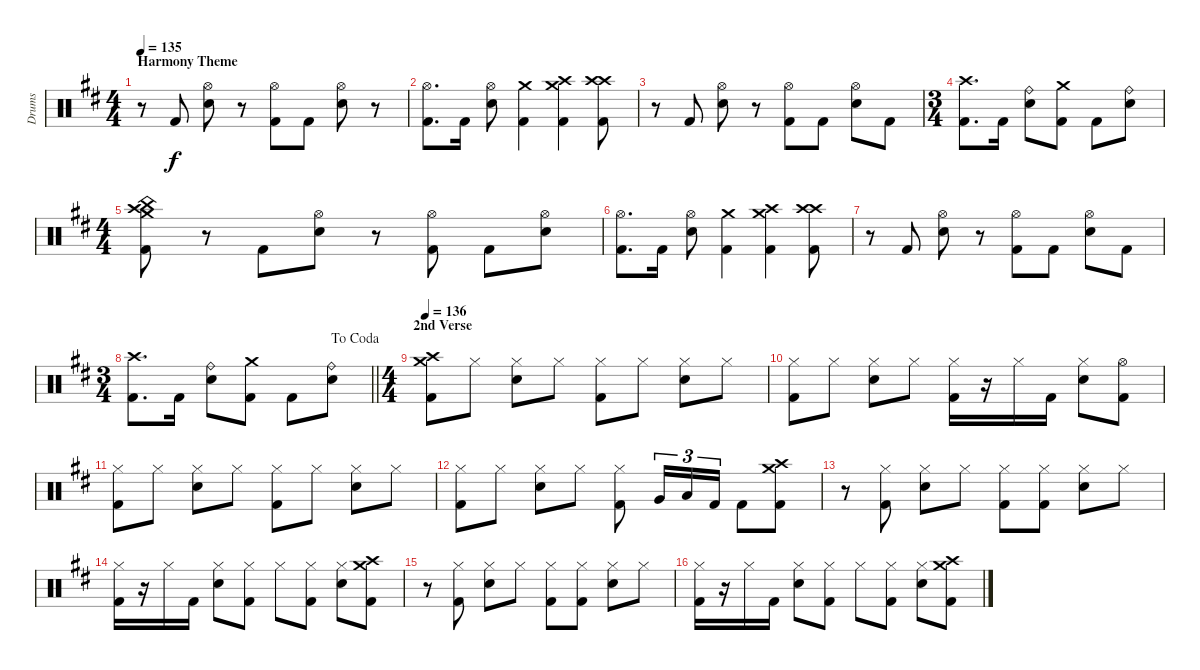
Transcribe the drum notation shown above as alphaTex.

\track ("Drums" "Drums") {instrument percussion}
\staff {score}
\articulation defaults
\ts (4 4)
\section ("" "Harmony Theme")
\tempo 135
\clef neutral
\ks d
r.8{dy f} "Kick (hit) 2".8 ("Hi-Hat (open)" "Electric Snare (hit)").8 r.8 ("Hi-Hat (open)" "Kick (hit) 2").8 "Kick (hit) 2".8 ("Hi-Hat (open)" "Electric Snare (hit)").8 r.8 |
("Hi-Hat (open)" "Kick (hit) 2").8{d} "Kick (hit) 2".16 ("Hi-Hat (open)" "Electric Snare (hit)").8 ("Crash medium (hit)" "Kick (hit) 2").4 ("Crash medium (hit)" "Crash high (hit)" "Kick (hit) 2").4 ("Crash high (hit)" "Crash high (hit)" "Kick (hit) 2").8 |
r.8 "Kick (hit) 2".8 ("Hi-Hat (open)" "Electric Snare (hit)").8 r.8 ("Hi-Hat (open)" "Kick (hit) 2").8 "Kick (hit) 2".8 ("Hi-Hat (open)" "Electric Snare (hit)").8 "Kick (hit) 2".8 |
\ts (3 4)
("Crash high (hit)" "Kick (hit) 2").8{d} "Kick (hit) 2".16 ("Ride (bell)" "Electric Snare (hit)").8 ("Crash medium (hit)" "Kick (hit) 2").8 "Kick (hit) 2".8 ("Ride (bell)" "Electric Snare (hit)").8 |
\ts (4 4)
("Crash high (hit)" "China (hit)" "Crash medium (hit)" "Kick (hit) 2").8 r.8 "Kick (hit) 2".8 ("Hi-Hat (open)" "Electric Snare (hit)").8 r.8 ("Hi-Hat (open)" "Kick (hit) 2").8 "Kick (hit) 2".8 ("Hi-Hat (open)" "Electric Snare (hit)").8 |
("Hi-Hat (open)" "Kick (hit) 2").8{d} "Kick (hit) 2".16 ("Hi-Hat (open)" "Electric Snare (hit)").8 ("Crash medium (hit)" "Kick (hit) 2").4 ("Crash medium (hit)" "Crash high (hit)" "Kick (hit) 2").4 ("Crash high (hit)" "Crash high (hit)" "Kick (hit) 2").8 |
r.8 "Kick (hit) 2".8 ("Hi-Hat (open)" "Electric Snare (hit)").8 r.8 ("Hi-Hat (open)" "Kick (hit) 2").8 "Kick (hit) 2".8 ("Hi-Hat (open)" "Electric Snare (hit)").8 "Kick (hit) 2".8 |
\ts (3 4)
\jump dacoda
\barLineRight lightlight
("Crash high (hit)" "Kick (hit) 2").8{d} "Kick (hit) 2".16 ("Ride (bell)" "Electric Snare (hit)").8 ("Crash medium (hit)" "Kick (hit) 2").8 "Kick (hit) 2".8 ("Ride (bell)" "Electric Snare (hit)").8 |
\ts (4 4)
\section ("" "2nd Verse")
\tempo 136
("Crash medium (hit)" "Crash high (hit)" "Kick (hit) 2").8 "Hi-Hat (closed)".8 ("Hi-Hat (closed)" "Electric Snare (hit)").8 "Hi-Hat (closed)".8 ("Hi-Hat (closed)" "Kick (hit) 2").8 "Hi-Hat (closed)".8 ("Hi-Hat (closed)" "Electric Snare (hit)").8 "Hi-Hat (closed)".8 |
("Hi-Hat (closed)" "Kick (hit) 2").8 "Hi-Hat (closed)".8 ("Hi-Hat (closed)" "Electric Snare (hit)").8 "Hi-Hat (closed)".8 ("Hi-Hat (closed)" "Kick (hit) 2").16 r.16 "Hi-Hat (closed)".16 "Kick (hit) 2".16 ("Hi-Hat (closed)" "Electric Snare (hit)").8 ("Hi-Hat (open)" "Kick (hit) 2").8 |
("Hi-Hat (closed)" "Kick (hit) 2").8 "Hi-Hat (closed)".8 ("Hi-Hat (closed)" "Electric Snare (hit)").8 "Hi-Hat (closed)".8 ("Hi-Hat (closed)" "Kick (hit) 2").8 "Hi-Hat (closed)".8 ("Hi-Hat (closed)" "Electric Snare (hit)").8 "Hi-Hat (closed)".8 |
("Hi-Hat (closed)" "Kick (hit) 2").8 "Hi-Hat (closed)".8 ("Hi-Hat (closed)" "Electric Snare (hit)").8 "Hi-Hat (closed)".8 ("Hi-Hat (closed)" "Kick (hit) 2").8 "Very Low Tom (hit)".16{tu (3 2)} "Low Floor Tom (hit)".16{tu (3 2)} "Kick (hit) 2".16{tu (3 2)} "Kick (hit) 2".8 ("Crash medium (hit)" "Crash high (hit)" "Kick (hit) 2").8 |
r.8 ("Hi-Hat (closed)" "Kick (hit) 2").8 ("Hi-Hat (closed)" "Electric Snare (hit)").8 "Hi-Hat (closed)".8 ("Hi-Hat (closed)" "Kick (hit) 2").8 ("Hi-Hat (closed)" "Kick (hit) 2").8 ("Hi-Hat (closed)" "Electric Snare (hit)").8 "Hi-Hat (closed)".8 |
("Hi-Hat (closed)" "Kick (hit) 2").16 r.16 "Hi-Hat (closed)".16 "Kick (hit) 2".16 ("Hi-Hat (closed)" "Electric Snare (hit)").8 ("Hi-Hat (closed)" "Kick (hit) 2").8 "Hi-Hat (closed)".8 ("Hi-Hat (closed)" "Kick (hit) 2").8 ("Hi-Hat (closed)" "Electric Snare (hit)").8 ("Crash medium (hit)" "Crash high (hit)" "Kick (hit) 2").8 |
r.8 ("Hi-Hat (closed)" "Kick (hit) 2").8 ("Hi-Hat (closed)" "Electric Snare (hit)").8 "Hi-Hat (closed)".8 ("Hi-Hat (closed)" "Kick (hit) 2").8 ("Hi-Hat (closed)" "Kick (hit) 2").8 ("Hi-Hat (closed)" "Electric Snare (hit)").8 "Hi-Hat (closed)".8 |
("Hi-Hat (closed)" "Kick (hit) 2").16 r.16 "Hi-Hat (closed)".16 "Kick (hit) 2".16 ("Hi-Hat (closed)" "Electric Snare (hit)").8 ("Hi-Hat (closed)" "Kick (hit) 2").8 "Hi-Hat (closed)".8 ("Hi-Hat (closed)" "Kick (hit) 2").8 ("Hi-Hat (closed)" "Electric Snare (hit)").8 ("Crash medium (hit)" "Crash high (hit)" "Kick (hit) 2").8
